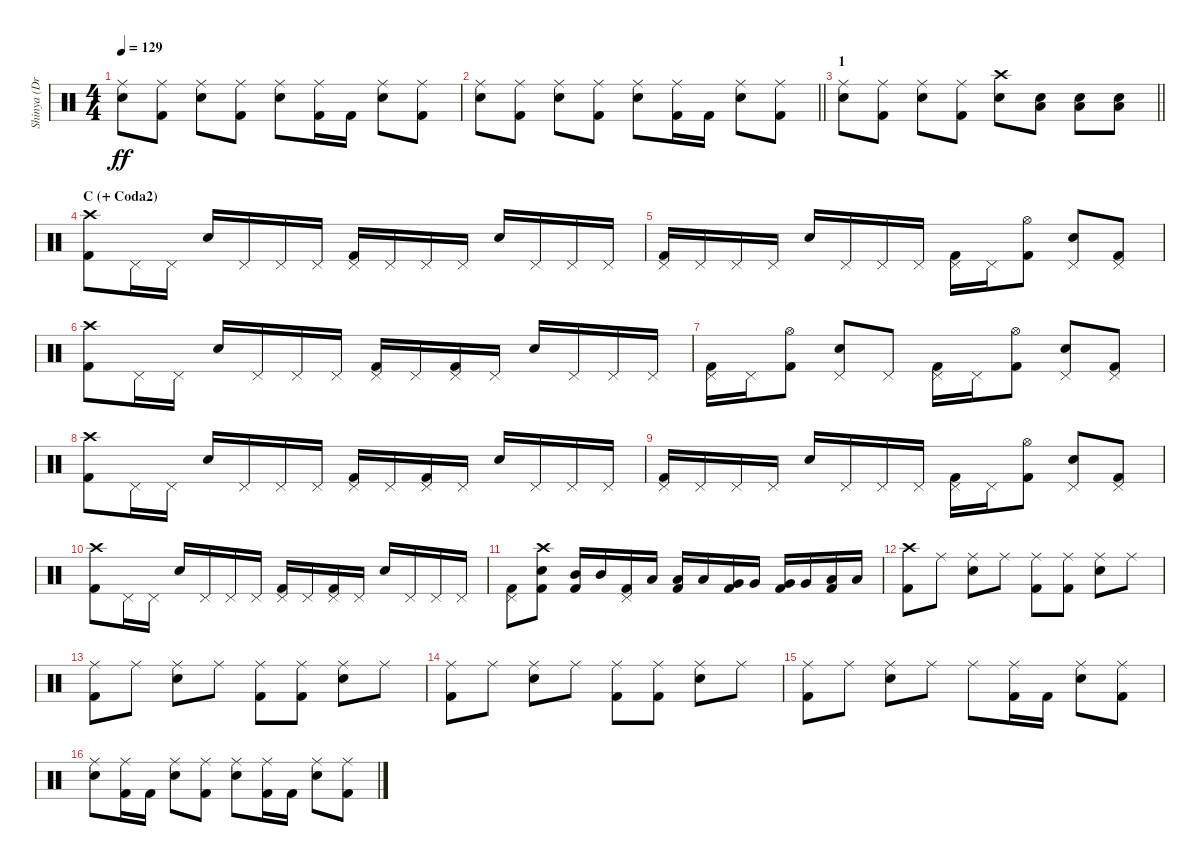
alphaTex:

\track ("Shinya (Drums)" "Shinya (Dr") {instrument percussion}
\staff {score}
\articulation defaults
\ts (4 4)
\tempo 129
\clef neutral
\ks c
("Electric Snare (hit)" "Ride (middle)").8{dy ff} ("Ride (middle)" "Kick (hit) 2").8 ("Electric Snare (hit)" "Ride (middle)").8 ("Ride (middle)" "Kick (hit) 2").8 ("Electric Snare (hit)" "Ride (middle)").8 ("Ride (middle)" "Kick (hit) 2").16 "Kick (hit) 2".16 ("Electric Snare (hit)" "Ride (middle)").8 ("Ride (middle)" "Kick (hit) 2").8 |
\barLineRight lightlight
("Electric Snare (hit)" "Ride (middle)").8 ("Ride (middle)" "Kick (hit) 2").8 ("Electric Snare (hit)" "Ride (middle)").8 ("Ride (middle)" "Kick (hit) 2").8 ("Electric Snare (hit)" "Ride (middle)").8 ("Ride (middle)" "Kick (hit) 2").16 "Kick (hit) 2".16 ("Electric Snare (hit)" "Ride (middle)").8 ("Ride (middle)" "Kick (hit) 2").8 |
\section ("" "1")
\barLineRight lightlight
("Ride (middle)" "Electric Snare (hit)").8 ("Ride (middle)" "Kick (hit) 2").8 ("Ride (middle)" "Electric Snare (hit)").8 ("Ride (middle)" "Kick (hit) 2").8 ("Electric Snare (hit)" "Crash high (hit)").8 ("Electric Snare (hit)" "Low Floor Tom (hit)").8 ("Electric Snare (hit)" "Low Floor Tom (hit)").8 ("Electric Snare (hit)" "Low Floor Tom (hit)").8 |
\section ("" "C (+ Coda2)")
("Kick (hit) 2" "Crash high (hit)").8 "Pedal Hi-Hat (hit)".16 "Pedal Hi-Hat (hit)".16 "Electric Snare (hit)".16 "Pedal Hi-Hat (hit)".16 "Pedal Hi-Hat (hit)".16 "Pedal Hi-Hat (hit)".16 ("Kick (hit) 2" "Pedal Hi-Hat (hit)").16 "Pedal Hi-Hat (hit)".16 "Pedal Hi-Hat (hit)".16 "Pedal Hi-Hat (hit)".16 "Electric Snare (hit)".16 "Pedal Hi-Hat (hit)".16 "Pedal Hi-Hat (hit)".16 "Pedal Hi-Hat (hit)".16 |
("Kick (hit) 2" "Pedal Hi-Hat (hit)").16 "Pedal Hi-Hat (hit)".16 "Pedal Hi-Hat (hit)".16 "Pedal Hi-Hat (hit)".16 "Electric Snare (hit)".16 "Pedal Hi-Hat (hit)".16 "Pedal Hi-Hat (hit)".16 "Pedal Hi-Hat (hit)".16 ("Kick (hit) 2" "Pedal Hi-Hat (hit)").16 "Pedal Hi-Hat (hit)".16 ("Kick (hit) 2" "Hi-Hat (open)").8 ("Electric Snare (hit)" "Pedal Hi-Hat (hit)").8 ("Kick (hit) 2" "Pedal Hi-Hat (hit)").8 |
("Kick (hit) 2" "Crash high (hit)").8 "Pedal Hi-Hat (hit)".16 "Pedal Hi-Hat (hit)".16 "Electric Snare (hit)".16 "Pedal Hi-Hat (hit)".16 "Pedal Hi-Hat (hit)".16 "Pedal Hi-Hat (hit)".16 ("Kick (hit) 2" "Pedal Hi-Hat (hit)").16 "Pedal Hi-Hat (hit)".16 ("Kick (hit) 2" "Pedal Hi-Hat (hit)").16 "Pedal Hi-Hat (hit)".16 "Electric Snare (hit)".16 "Pedal Hi-Hat (hit)".16 "Pedal Hi-Hat (hit)".16 "Pedal Hi-Hat (hit)".16 |
("Kick (hit) 2" "Pedal Hi-Hat (hit)").16 "Pedal Hi-Hat (hit)".16 ("Kick (hit) 2" "Hi-Hat (open)").8 ("Pedal Hi-Hat (hit)" "Electric Snare (hit)").8 "Pedal Hi-Hat (hit)".8 ("Kick (hit) 2" "Pedal Hi-Hat (hit)").16 "Pedal Hi-Hat (hit)".16 ("Kick (hit) 2" "Hi-Hat (open)").8 ("Pedal Hi-Hat (hit)" "Electric Snare (hit)").8 ("Kick (hit) 2" "Pedal Hi-Hat (hit)").8 |
("Crash high (hit)" "Kick (hit) 2").8 "Pedal Hi-Hat (hit)".16 "Pedal Hi-Hat (hit)".16 "Electric Snare (hit)".16 "Pedal Hi-Hat (hit)".16 "Pedal Hi-Hat (hit)".16 "Pedal Hi-Hat (hit)".16 ("Pedal Hi-Hat (hit)" "Kick (hit) 2").16 "Pedal Hi-Hat (hit)".16 ("Pedal Hi-Hat (hit)" "Kick (hit) 2").16 "Pedal Hi-Hat (hit)".16 "Electric Snare (hit)".16 "Pedal Hi-Hat (hit)".16 "Pedal Hi-Hat (hit)".16 "Pedal Hi-Hat (hit)".16 |
("Kick (hit) 2" "Pedal Hi-Hat (hit)").16 "Pedal Hi-Hat (hit)".16 "Pedal Hi-Hat (hit)".16 "Pedal Hi-Hat (hit)".16 "Electric Snare (hit)".16 "Pedal Hi-Hat (hit)".16 "Pedal Hi-Hat (hit)".16 "Pedal Hi-Hat (hit)".16 ("Pedal Hi-Hat (hit)" "Kick (hit) 2").16 "Pedal Hi-Hat (hit)".16 ("Kick (hit) 2" "Hi-Hat (open)").8 ("Electric Snare (hit)" "Pedal Hi-Hat (hit)").8 ("Pedal Hi-Hat (hit)" "Kick (hit) 2").8 |
("Crash high (hit)" "Kick (hit) 2").8 "Pedal Hi-Hat (hit)".16 "Pedal Hi-Hat (hit)".16 "Electric Snare (hit)".16 "Pedal Hi-Hat (hit)".16 "Pedal Hi-Hat (hit)".16 "Pedal Hi-Hat (hit)".16 ("Pedal Hi-Hat (hit)" "Kick (hit) 2").16 "Pedal Hi-Hat (hit)".16 ("Pedal Hi-Hat (hit)" "Kick (hit) 2").16 "Pedal Hi-Hat (hit)".16 "Electric Snare (hit)".16 "Pedal Hi-Hat (hit)".16 "Pedal Hi-Hat (hit)".16 "Pedal Hi-Hat (hit)".16 |
("Kick (hit) 2" "Pedal Hi-Hat (hit)").8 ("Kick (hit) 2" "Crash high (hit)" "Electric Snare (hit)").8 ("Kick (hit) 2" "Mid Tom (hit)").16 "Mid Tom (hit)".16 ("Kick (hit) 2" "Pedal Hi-Hat (hit)").16 "Low Tom (hit)".16 ("Kick (hit) 2" "Low Tom (hit)").16 "Low Tom (hit)".16 ("Kick (hit) 2" "Very Low Tom (hit)").16 "Very Low Tom (hit)".16 ("Kick (hit) 2" "Very Low Tom (hit)").16 "Very Low Tom (hit)".16 ("Kick (hit) 2" "Low Floor Tom (hit)").16 "Low Floor Tom (hit)".16 |
("Kick (hit) 2" "Crash high (hit)").8 "Ride (middle)".8 ("Electric Snare (hit)" "Ride (middle)").8 "Ride (middle)".8 ("Kick (hit) 2" "Ride (middle)").8 ("Kick (hit) 2" "Ride (middle)").8 ("Electric Snare (hit)" "Ride (middle)").8 "Ride (middle)".8 |
("Kick (hit) 2" "Ride (middle)").8 "Ride (middle)".8 ("Electric Snare (hit)" "Ride (middle)").8 "Ride (middle)".8 ("Kick (hit) 2" "Ride (middle)").8 ("Kick (hit) 2" "Ride (middle)").8 ("Electric Snare (hit)" "Ride (middle)").8 "Ride (middle)".8 |
("Kick (hit) 2" "Ride (middle)").8 "Ride (middle)".8 ("Electric Snare (hit)" "Ride (middle)").8 "Ride (middle)".8 ("Kick (hit) 2" "Ride (middle)").8 ("Kick (hit) 2" "Ride (middle)").8 ("Electric Snare (hit)" "Ride (middle)").8 "Ride (middle)".8 |
("Kick (hit) 2" "Ride (middle)").8 "Ride (middle)".8 ("Electric Snare (hit)" "Ride (middle)").8 "Ride (middle)".8 "Ride (middle)".8 ("Ride (middle)" "Kick (hit) 2").16 "Kick (hit) 2".16 ("Electric Snare (hit)" "Ride (middle)").8 ("Ride (middle)" "Kick (hit) 2").8 |
("Electric Snare (hit)" "Ride (middle)").8 ("Ride (middle)" "Kick (hit) 2").16 "Kick (hit) 2".16 ("Electric Snare (hit)" "Ride (middle)").8 ("Ride (middle)" "Kick (hit) 2").8 ("Electric Snare (hit)" "Ride (middle)").8 ("Ride (middle)" "Kick (hit) 2").16 "Kick (hit) 2".16 ("Electric Snare (hit)" "Ride (middle)").8 ("Ride (middle)" "Kick (hit) 2").8
